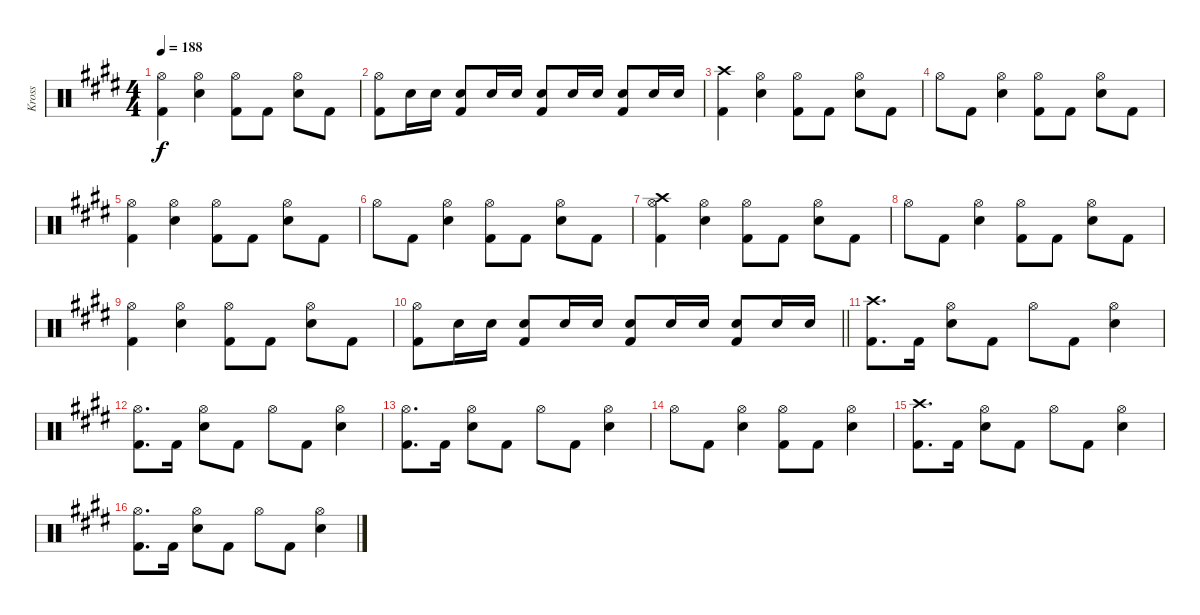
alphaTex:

\track ("Kross" "Kross") {instrument percussion}
\staff {score}
\articulation defaults
\ts (4 4)
\tempo 188
\clef neutral
\ks e
("Hi-Hat (open)" "Kick (hit) 2").4{dy f} ("Hi-Hat (open)" "Electric Snare (hit)").4 ("Hi-Hat (open)" "Kick (hit) 2").8 "Kick (hit) 2".8 ("Hi-Hat (open)" "Electric Snare (hit)").8 "Kick (hit) 2".8 |
("Hi-Hat (open)" "Kick (hit) 2").8 "Electric Snare (hit)".16 "Electric Snare (hit)".16 ("Electric Snare (hit)" "Kick (hit) 2").8 "Electric Snare (hit)".16 "Electric Snare (hit)".16 ("Electric Snare (hit)" "Kick (hit) 2").8 "Electric Snare (hit)".16 "Electric Snare (hit)".16 ("Electric Snare (hit)" "Kick (hit) 2").8 "Electric Snare (hit)".16 "Electric Snare (hit)".16 |
("Crash high (hit)" "Kick (hit) 2").4 ("Hi-Hat (open)" "Electric Snare (hit)").4 ("Hi-Hat (open)" "Kick (hit) 2").8 "Kick (hit) 2".8 ("Hi-Hat (open)" "Electric Snare (hit)").8 "Kick (hit) 2".8 |
"Hi-Hat (open)".8 "Kick (hit) 2".8 ("Hi-Hat (open)" "Electric Snare (hit)").4 ("Hi-Hat (open)" "Kick (hit) 2").8 "Kick (hit) 2".8 ("Hi-Hat (open)" "Electric Snare (hit)").8 "Kick (hit) 2".8 |
("Hi-Hat (open)" "Kick (hit) 2").4 ("Hi-Hat (open)" "Electric Snare (hit)").4 ("Hi-Hat (open)" "Kick (hit) 2").8 "Kick (hit) 2".8 ("Hi-Hat (open)" "Electric Snare (hit)").8 "Kick (hit) 2".8 |
"Hi-Hat (open)".8 "Kick (hit) 2".8 ("Hi-Hat (open)" "Electric Snare (hit)").4 ("Hi-Hat (open)" "Kick (hit) 2").8 "Kick (hit) 2".8 ("Hi-Hat (open)" "Electric Snare (hit)").8 "Kick (hit) 2".8 |
("Crash high (hit)" "Hi-Hat (open)" "Kick (hit) 2").4 ("Hi-Hat (open)" "Electric Snare (hit)").4 ("Hi-Hat (open)" "Kick (hit) 2").8 "Kick (hit) 2".8 ("Hi-Hat (open)" "Electric Snare (hit)").8 "Kick (hit) 2".8 |
"Hi-Hat (open)".8 "Kick (hit) 2".8 ("Hi-Hat (open)" "Electric Snare (hit)").4 ("Hi-Hat (open)" "Kick (hit) 2").8 "Kick (hit) 2".8 ("Hi-Hat (open)" "Electric Snare (hit)").8 "Kick (hit) 2".8 |
("Hi-Hat (open)" "Kick (hit) 2").4 ("Hi-Hat (open)" "Electric Snare (hit)").4 ("Hi-Hat (open)" "Kick (hit) 2").8 "Kick (hit) 2".8 ("Hi-Hat (open)" "Electric Snare (hit)").8 "Kick (hit) 2".8 |
\barLineRight lightlight
("Hi-Hat (open)" "Kick (hit) 2").8 "Electric Snare (hit)".16 "Electric Snare (hit)".16 ("Electric Snare (hit)" "Kick (hit) 2").8 "Electric Snare (hit)".16 "Electric Snare (hit)".16 ("Electric Snare (hit)" "Kick (hit) 2").8 "Electric Snare (hit)".16 "Electric Snare (hit)".16 ("Electric Snare (hit)" "Kick (hit) 2").8 "Electric Snare (hit)".16 "Electric Snare (hit)".16 |
("Crash high (hit)" "Kick (hit) 2").8{d} "Kick (hit) 2".16 ("Hi-Hat (open)" "Electric Snare (hit)").8 "Kick (hit) 2".8 "Hi-Hat (open)".8 "Kick (hit) 2".8 ("Hi-Hat (open)" "Electric Snare (hit)").4 |
("Hi-Hat (open)" "Kick (hit) 2").8{d} "Kick (hit) 2".16 ("Hi-Hat (open)" "Electric Snare (hit)").8 "Kick (hit) 2".8 "Hi-Hat (open)".8 "Kick (hit) 2".8 ("Hi-Hat (open)" "Electric Snare (hit)").4 |
("Hi-Hat (open)" "Kick (hit) 2").8{d} "Kick (hit) 2".16 ("Hi-Hat (open)" "Electric Snare (hit)").8 "Kick (hit) 2".8 "Hi-Hat (open)".8 "Kick (hit) 2".8 ("Hi-Hat (open)" "Electric Snare (hit)").4 |
"Hi-Hat (open)".8 "Kick (hit) 2".8 ("Hi-Hat (open)" "Electric Snare (hit)").4 ("Hi-Hat (open)" "Kick (hit) 2").8 "Kick (hit) 2".8 ("Hi-Hat (open)" "Electric Snare (hit)").4 |
("Crash high (hit)" "Kick (hit) 2").8{d} "Kick (hit) 2".16 ("Hi-Hat (open)" "Electric Snare (hit)").8 "Kick (hit) 2".8 "Hi-Hat (open)".8 "Kick (hit) 2".8 ("Hi-Hat (open)" "Electric Snare (hit)").4 |
("Hi-Hat (open)" "Kick (hit) 2").8{d} "Kick (hit) 2".16 ("Hi-Hat (open)" "Electric Snare (hit)").8 "Kick (hit) 2".8 "Hi-Hat (open)".8 "Kick (hit) 2".8 ("Hi-Hat (open)" "Electric Snare (hit)").4
